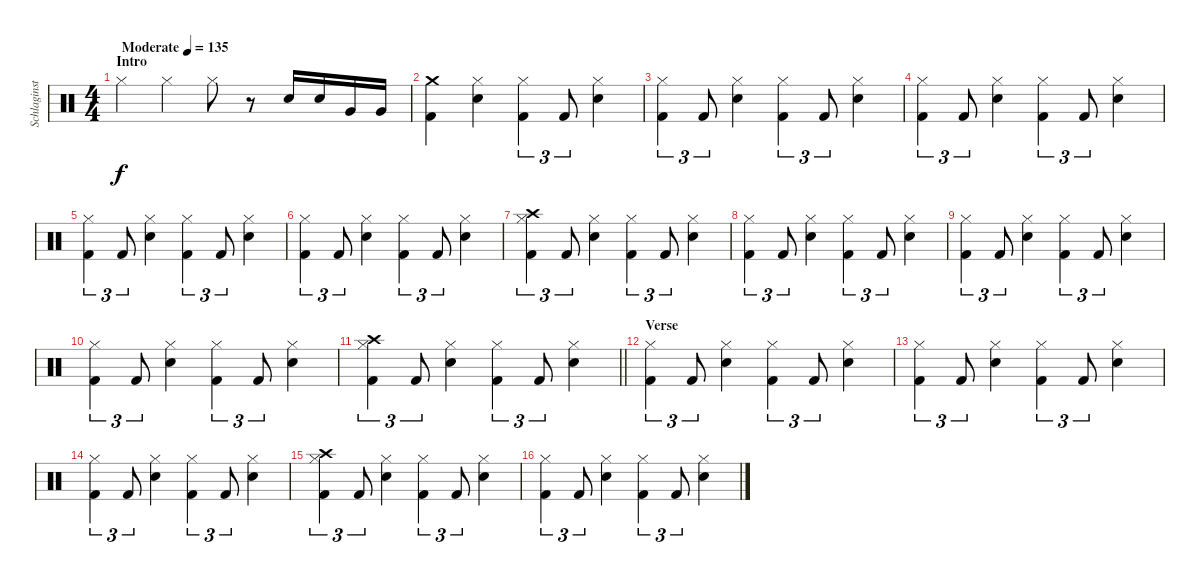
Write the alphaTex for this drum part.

\track ("Schlaginstrumente - Auswahl" "Schlaginst") {instrument percussion}
\staff {score}
\articulation defaults
\ts (4 4)
\section ("" "Intro")
\tempo (135 "Moderate")
\clef neutral
\ks c "Hi-Hat (closed)".4{dy f} "Hi-Hat (closed)".4 "Hi-Hat (closed)".8
r.8 "Electric Snare (hit)".16 "Electric Snare (hit)".16 "Very Low Tom (hit)".16 "Very Low Tom (hit)".16 |
("Crash medium (hit)" "Kick (hit) 2").4 ("Hi-Hat (closed)" "Electric Snare (hit)").4 ("Hi-Hat (closed)" "Kick (hit) 2").4{tu (3 2)} "Kick (hit) 2".8{tu (3 2)} ("Hi-Hat (closed)" "Electric Snare (hit)").4 |
("Hi-Hat (closed)" "Kick (hit) 2").4{tu (3 2)} "Kick (hit) 2".8{tu (3 2)} ("Hi-Hat (closed)" "Electric Snare (hit)").4 ("Hi-Hat (closed)" "Kick (hit) 2").4{tu (3 2)} "Kick (hit) 2".8{tu (3 2)} ("Hi-Hat (closed)" "Electric Snare (hit)").4 |
("Hi-Hat (closed)" "Kick (hit) 2").4{tu (3 2)} "Kick (hit) 2".8{tu (3 2)} ("Hi-Hat (closed)" "Electric Snare (hit)").4 ("Hi-Hat (closed)" "Kick (hit) 2").4{tu (3 2)} "Kick (hit) 2".8{tu (3 2)} ("Hi-Hat (closed)" "Electric Snare (hit)").4 |
("Hi-Hat (closed)" "Kick (hit) 2").4{tu (3 2)} "Kick (hit) 2".8{tu (3 2)} ("Hi-Hat (closed)" "Electric Snare (hit)").4 ("Hi-Hat (closed)" "Kick (hit) 2").4{tu (3 2)} "Kick (hit) 2".8{tu (3 2)} ("Hi-Hat (closed)" "Electric Snare (hit)").4 |
("Hi-Hat (closed)" "Kick (hit) 2").4{tu (3 2)} "Kick (hit) 2".8{tu (3 2)} ("Hi-Hat (closed)" "Electric Snare (hit)").4 ("Hi-Hat (closed)" "Kick (hit) 2").4{tu (3 2)} "Kick (hit) 2".8{tu (3 2)} ("Hi-Hat (closed)" "Electric Snare (hit)").4 |
("Crash high (hit)" "Hi-Hat (closed)" "Kick (hit) 2").4{tu (3 2)} "Kick (hit) 2".8{tu (3 2)} ("Hi-Hat (closed)" "Electric Snare (hit)").4 ("Hi-Hat (closed)" "Kick (hit) 2").4{tu (3 2)} "Kick (hit) 2".8{tu (3 2)} ("Hi-Hat (closed)" "Electric Snare (hit)").4 |
("Hi-Hat (closed)" "Kick (hit) 2").4{tu (3 2)} "Kick (hit) 2".8{tu (3 2)} ("Hi-Hat (closed)" "Electric Snare (hit)").4 ("Hi-Hat (closed)" "Kick (hit) 2").4{tu (3 2)} "Kick (hit) 2".8{tu (3 2)} ("Hi-Hat (closed)" "Electric Snare (hit)").4 |
("Hi-Hat (closed)" "Kick (hit) 2").4{tu (3 2)} "Kick (hit) 2".8{tu (3 2)} ("Hi-Hat (closed)" "Electric Snare (hit)").4 ("Hi-Hat (closed)" "Kick (hit) 2").4{tu (3 2)} "Kick (hit) 2".8{tu (3 2)} ("Hi-Hat (closed)" "Electric Snare (hit)").4 |
("Hi-Hat (closed)" "Kick (hit) 2").4{tu (3 2)} "Kick (hit) 2".8{tu (3 2)} ("Hi-Hat (closed)" "Electric Snare (hit)").4 ("Hi-Hat (closed)" "Kick (hit) 2").4{tu (3 2)} "Kick (hit) 2".8{tu (3 2)} ("Hi-Hat (closed)" "Electric Snare (hit)").4 |
\barLineRight lightlight
("Crash high (hit)" "Hi-Hat (closed)" "Kick (hit) 2").4{tu (3 2)} "Kick (hit) 2".8{tu (3 2)} ("Hi-Hat (closed)" "Electric Snare (hit)").4 ("Hi-Hat (closed)" "Kick (hit) 2").4{tu (3 2)} "Kick (hit) 2".8{tu (3 2)} ("Hi-Hat (closed)" "Electric Snare (hit)").4 |
\section ("" "Verse")
("Hi-Hat (closed)" "Kick (hit) 2").4{tu (3 2)} "Kick (hit) 2".8{tu (3 2)} ("Hi-Hat (closed)" "Electric Snare (hit)").4 ("Hi-Hat (closed)" "Kick (hit) 2").4{tu (3 2)} "Kick (hit) 2".8{tu (3 2)} ("Hi-Hat (closed)" "Electric Snare (hit)").4 |
("Hi-Hat (closed)" "Kick (hit) 2").4{tu (3 2)} "Kick (hit) 2".8{tu (3 2)} ("Hi-Hat (closed)" "Electric Snare (hit)").4 ("Hi-Hat (closed)" "Kick (hit) 2").4{tu (3 2)} "Kick (hit) 2".8{tu (3 2)} ("Hi-Hat (closed)" "Electric Snare (hit)").4 |
("Hi-Hat (closed)" "Kick (hit) 2").4{tu (3 2)} "Kick (hit) 2".8{tu (3 2)} ("Hi-Hat (closed)" "Electric Snare (hit)").4 ("Hi-Hat (closed)" "Kick (hit) 2").4{tu (3 2)} "Kick (hit) 2".8{tu (3 2)} ("Hi-Hat (closed)" "Electric Snare (hit)").4 |
("Crash high (hit)" "Hi-Hat (closed)" "Kick (hit) 2").4{tu (3 2)} "Kick (hit) 2".8{tu (3 2)} ("Hi-Hat (closed)" "Electric Snare (hit)").4 ("Hi-Hat (closed)" "Kick (hit) 2").4{tu (3 2)} "Kick (hit) 2".8{tu (3 2)} ("Hi-Hat (closed)" "Electric Snare (hit)").4 |
("Hi-Hat (closed)" "Kick (hit) 2").4{tu (3 2)} "Kick (hit) 2".8{tu (3 2)} ("Hi-Hat (closed)" "Electric Snare (hit)").4 ("Hi-Hat (closed)" "Kick (hit) 2").4{tu (3 2)} "Kick (hit) 2".8{tu (3 2)} ("Hi-Hat (closed)" "Electric Snare (hit)").4
